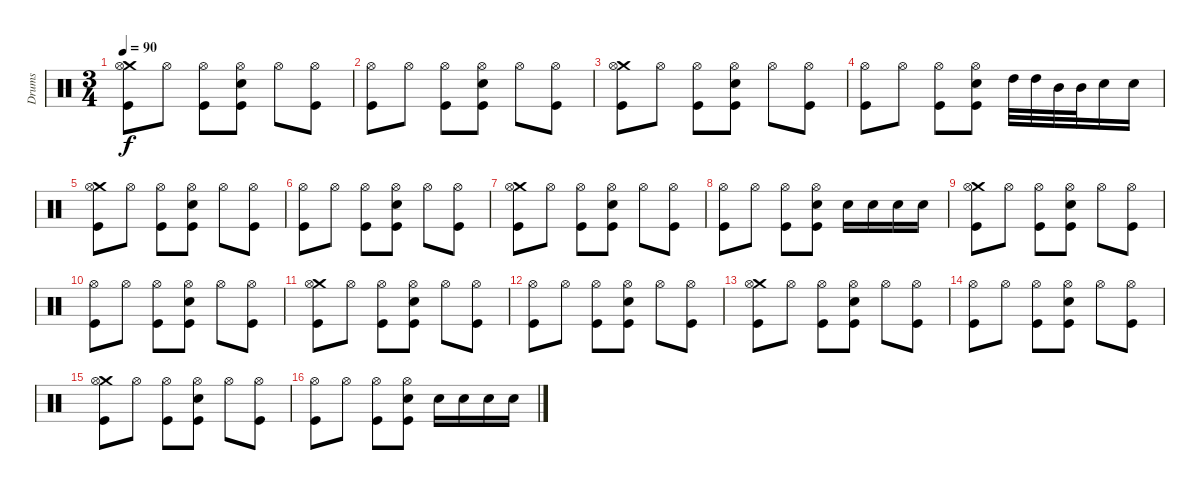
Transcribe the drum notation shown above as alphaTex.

\track ("Drums" "Drums") {instrument percussion}
\staff {score}
\articulation defaults
\ts (3 4)
\tempo 90
\clef neutral
\ks c
("Crash medium (hit)" "Hi-Hat (open)" "Kick (hit)").8{dy f} "Hi-Hat (open)".8 ("Hi-Hat (open)" "Kick (hit)").8 ("Hi-Hat (open)" "Snare (hit) 2" "Kick (hit)").8 "Hi-Hat (open)".8 ("Hi-Hat (open)" "Kick (hit)").8 |
("Hi-Hat (open)" "Kick (hit)").8 "Hi-Hat (open)".8 ("Hi-Hat (open)" "Kick (hit)").8 ("Hi-Hat (open)" "Snare (hit) 2" "Kick (hit)").8 "Hi-Hat (open)".8 ("Hi-Hat (open)" "Kick (hit)").8 |
("Crash medium (hit)" "Hi-Hat (open)" "Kick (hit)").8 "Hi-Hat (open)".8 ("Hi-Hat (open)" "Kick (hit)").8 ("Hi-Hat (open)" "Snare (hit) 2" "Kick (hit)").8 "Hi-Hat (open)".8 ("Hi-Hat (open)" "Kick (hit)").8 |
("Hi-Hat (open)" "Kick (hit)").8 "Hi-Hat (open)".8 ("Hi-Hat (open)" "Kick (hit)").8 ("Hi-Hat (open)" "Snare (hit) 2" "Kick (hit)").8 "High Tom (hit)".32 "High Tom (hit)".32 "Mid Tom (hit)".32 "Mid Tom (hit)".32 "Snare (hit) 2".16 "Snare (hit) 2".16 |
("Crash medium (hit)" "Hi-Hat (open)" "Kick (hit)").8 "Hi-Hat (open)".8 ("Hi-Hat (open)" "Kick (hit)").8 ("Hi-Hat (open)" "Snare (hit) 2" "Kick (hit)").8 "Hi-Hat (open)".8 ("Hi-Hat (open)" "Kick (hit)").8 |
("Hi-Hat (open)" "Kick (hit)").8 "Hi-Hat (open)".8 ("Hi-Hat (open)" "Kick (hit)").8 ("Hi-Hat (open)" "Snare (hit) 2" "Kick (hit)").8 "Hi-Hat (open)".8 ("Hi-Hat (open)" "Kick (hit)").8 |
("Crash medium (hit)" "Hi-Hat (open)" "Kick (hit)").8 "Hi-Hat (open)".8 ("Hi-Hat (open)" "Kick (hit)").8 ("Hi-Hat (open)" "Snare (hit) 2" "Kick (hit)").8 "Hi-Hat (open)".8 ("Hi-Hat (open)" "Kick (hit)").8 |
("Hi-Hat (open)" "Kick (hit)").8 "Hi-Hat (open)".8 ("Hi-Hat (open)" "Kick (hit)").8 ("Hi-Hat (open)" "Snare (hit) 2" "Kick (hit)").8 "Snare (hit) 2".16 "Snare (hit) 2".16 "Snare (hit) 2".16 "Snare (hit) 2".16 |
("Crash medium (hit)" "Hi-Hat (open)" "Kick (hit)").8 "Hi-Hat (open)".8 ("Hi-Hat (open)" "Kick (hit)").8 ("Hi-Hat (open)" "Snare (hit) 2" "Kick (hit)").8 "Hi-Hat (open)".8 ("Hi-Hat (open)" "Kick (hit)").8 |
("Hi-Hat (open)" "Kick (hit)").8 "Hi-Hat (open)".8 ("Hi-Hat (open)" "Kick (hit)").8 ("Hi-Hat (open)" "Snare (hit) 2" "Kick (hit)").8 "Hi-Hat (open)".8 ("Hi-Hat (open)" "Kick (hit)").8 |
("Crash medium (hit)" "Hi-Hat (open)" "Kick (hit)").8 "Hi-Hat (open)".8 ("Hi-Hat (open)" "Kick (hit)").8 ("Hi-Hat (open)" "Snare (hit) 2" "Kick (hit)").8 "Hi-Hat (open)".8 ("Hi-Hat (open)" "Kick (hit)").8 |
("Hi-Hat (open)" "Kick (hit)").8 "Hi-Hat (open)".8 ("Hi-Hat (open)" "Kick (hit)").8 ("Hi-Hat (open)" "Snare (hit) 2" "Kick (hit)").8 "Hi-Hat (open)".8 ("Hi-Hat (open)" "Kick (hit)").8 |
("Crash medium (hit)" "Hi-Hat (open)" "Kick (hit)").8 "Hi-Hat (open)".8 ("Hi-Hat (open)" "Kick (hit)").8 ("Hi-Hat (open)" "Snare (hit) 2" "Kick (hit)").8 "Hi-Hat (open)".8 ("Hi-Hat (open)" "Kick (hit)").8 |
("Hi-Hat (open)" "Kick (hit)").8 "Hi-Hat (open)".8 ("Hi-Hat (open)" "Kick (hit)").8 ("Hi-Hat (open)" "Snare (hit) 2" "Kick (hit)").8 "Hi-Hat (open)".8 ("Hi-Hat (open)" "Kick (hit)").8 |
("Crash medium (hit)" "Hi-Hat (open)" "Kick (hit)").8 "Hi-Hat (open)".8 ("Hi-Hat (open)" "Kick (hit)").8 ("Hi-Hat (open)" "Snare (hit) 2" "Kick (hit)").8 "Hi-Hat (open)".8 ("Hi-Hat (open)" "Kick (hit)").8 |
("Hi-Hat (open)" "Kick (hit)").8 "Hi-Hat (open)".8 ("Hi-Hat (open)" "Kick (hit)").8 ("Hi-Hat (open)" "Snare (hit) 2" "Kick (hit)").8 "Snare (hit) 2".16 "Snare (hit) 2".16 "Snare (hit) 2".16 "Snare (hit) 2".16
